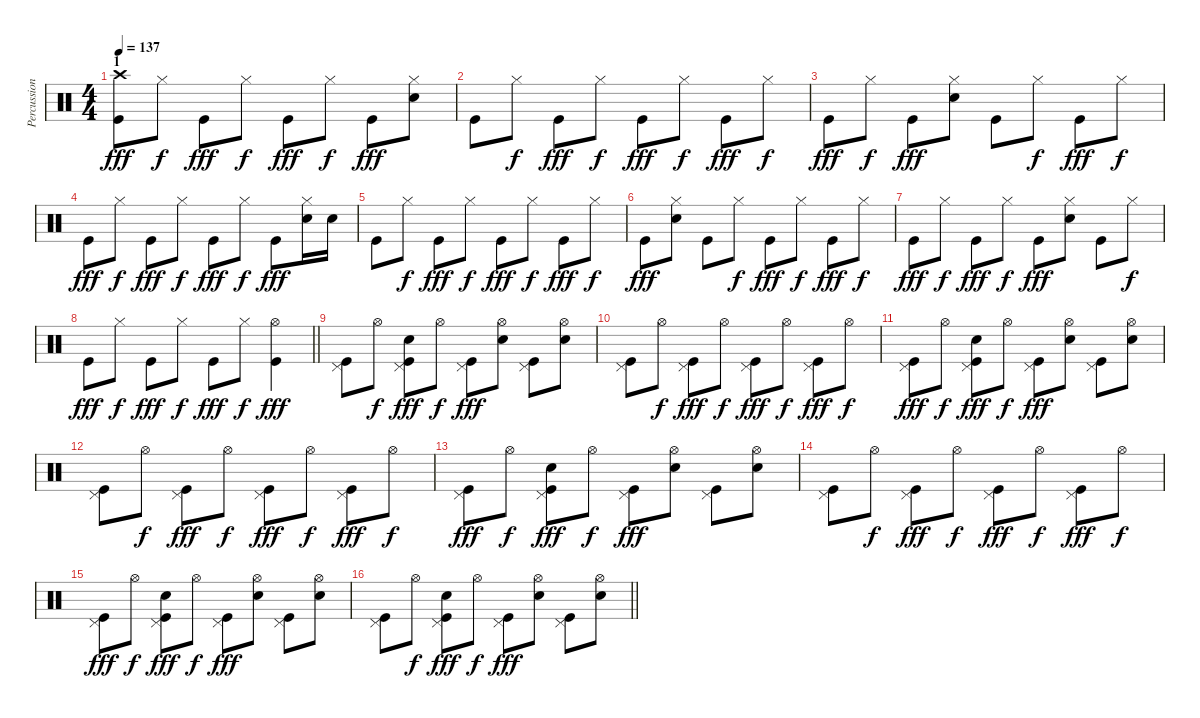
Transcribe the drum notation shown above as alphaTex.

\track ("Percussions" "Percussion") {instrument percussion}
\staff {score}
\articulation defaults
\ts (4 4)
\section ("" "1")
\tempo 137
\clef neutral
\ks c
("Kick (hit)" "Crash high (hit)").8{dy fff} "Hi-Hat (closed)".8{dy f} "Kick (hit)".8{dy fff} "Hi-Hat (closed)".8{dy f} "Kick (hit)".8{dy fff} "Hi-Hat (closed)".8{dy f} "Kick (hit)".8{dy fff} ("Electric Snare (hit)" "Hi-Hat (closed)").8 |
"Kick (hit)".8 "Hi-Hat (closed)".8{dy f} "Kick (hit)".8{dy fff} "Hi-Hat (closed)".8{dy f} "Kick (hit)".8{dy fff} "Hi-Hat (closed)".8{dy f} "Kick (hit)".8{dy fff} "Hi-Hat (closed)".8{dy f} |
"Kick (hit)".8{dy fff} "Hi-Hat (closed)".8{dy f} "Kick (hit)".8{dy fff} ("Electric Snare (hit)" "Hi-Hat (closed)").8 "Kick (hit)".8 "Hi-Hat (closed)".8{dy f} "Kick (hit)".8{dy fff} "Hi-Hat (closed)".8{dy f} |
"Kick (hit)".8{dy fff} "Hi-Hat (closed)".8{dy f} "Kick (hit)".8{dy fff} "Hi-Hat (closed)".8{dy f} "Kick (hit)".8{dy fff} "Hi-Hat (closed)".8{dy f} "Kick (hit)".8{dy fff} ("Electric Snare (hit)" "Hi-Hat (closed)").16 "Electric Snare (hit)".16 |
"Kick (hit)".8 "Hi-Hat (closed)".8{dy f} "Kick (hit)".8{dy fff} "Hi-Hat (closed)".8{dy f} "Kick (hit)".8{dy fff} "Hi-Hat (closed)".8{dy f} "Kick (hit)".8{dy fff} "Hi-Hat (closed)".8{dy f} |
"Kick (hit)".8{dy fff} ("Electric Snare (hit)" "Hi-Hat (closed)").8 "Kick (hit)".8 "Hi-Hat (closed)".8{dy f} "Kick (hit)".8{dy fff} "Hi-Hat (closed)".8{dy f} "Kick (hit)".8{dy fff} "Hi-Hat (closed)".8{dy f} |
"Kick (hit)".8{dy fff} "Hi-Hat (closed)".8{dy f} "Kick (hit)".8{dy fff} "Hi-Hat (closed)".8{dy f} "Kick (hit)".8{dy fff} ("Electric Snare (hit)" "Hi-Hat (closed)").8 "Kick (hit)".8 "Hi-Hat (closed)".8{dy f} |
\barLineRight lightlight "Kick (hit)".8{dy fff} "Hi-Hat (closed)".8{dy f} "Kick (hit)".8{dy fff} "Hi-Hat (closed)".8{dy f} "Kick (hit)".8{dy fff} "Hi-Hat (closed)".8{dy f}
("Kick (hit)" "Hi-Hat (open)").4{dy fff} |
("Kick (hit)" "Pedal Hi-Hat (hit)").8 "Hi-Hat (open)".8{dy f} ("Kick (hit)" "Electric Snare (hit)" "Pedal Hi-Hat (hit)").8{dy fff} "Hi-Hat (open)".8{dy f} ("Kick (hit)" "Pedal Hi-Hat (hit)").8{dy fff} ("Electric Snare (hit)" "Hi-Hat (open)").8 ("Kick (hit)" "Pedal Hi-Hat (hit)").8 ("Electric Snare (hit)" "Hi-Hat (open)").8 |
("Kick (hit)" "Pedal Hi-Hat (hit)").8 "Hi-Hat (open)".8{dy f} ("Kick (hit)" "Pedal Hi-Hat (hit)").8{dy fff} "Hi-Hat (open)".8{dy f} ("Kick (hit)" "Pedal Hi-Hat (hit)").8{dy fff} "Hi-Hat (open)".8{dy f} ("Kick (hit)" "Pedal Hi-Hat (hit)").8{dy fff} "Hi-Hat (open)".8{dy f} |
("Kick (hit)" "Pedal Hi-Hat (hit)").8{dy fff} "Hi-Hat (open)".8{dy f} ("Kick (hit)" "Electric Snare (hit)" "Pedal Hi-Hat (hit)").8{dy fff} "Hi-Hat (open)".8{dy f} ("Kick (hit)" "Pedal Hi-Hat (hit)").8{dy fff} ("Electric Snare (hit)" "Hi-Hat (open)").8 ("Kick (hit)" "Pedal Hi-Hat (hit)").8 ("Electric Snare (hit)" "Hi-Hat (open)").8 |
("Kick (hit)" "Pedal Hi-Hat (hit)").8 "Hi-Hat (open)".8{dy f} ("Kick (hit)" "Pedal Hi-Hat (hit)").8{dy fff} "Hi-Hat (open)".8{dy f} ("Kick (hit)" "Pedal Hi-Hat (hit)").8{dy fff} "Hi-Hat (open)".8{dy f} ("Kick (hit)" "Pedal Hi-Hat (hit)").8{dy fff} "Hi-Hat (open)".8{dy f} |
("Kick (hit)" "Pedal Hi-Hat (hit)").8{dy fff} "Hi-Hat (open)".8{dy f} ("Kick (hit)" "Electric Snare (hit)" "Pedal Hi-Hat (hit)").8{dy fff} "Hi-Hat (open)".8{dy f} ("Kick (hit)" "Pedal Hi-Hat (hit)").8{dy fff} ("Electric Snare (hit)" "Hi-Hat (open)").8 ("Kick (hit)" "Pedal Hi-Hat (hit)").8 ("Electric Snare (hit)" "Hi-Hat (open)").8 |
("Kick (hit)" "Pedal Hi-Hat (hit)").8 "Hi-Hat (open)".8{dy f} ("Kick (hit)" "Pedal Hi-Hat (hit)").8{dy fff} "Hi-Hat (open)".8{dy f} ("Kick (hit)" "Pedal Hi-Hat (hit)").8{dy fff} "Hi-Hat (open)".8{dy f} ("Kick (hit)" "Pedal Hi-Hat (hit)").8{dy fff} "Hi-Hat (open)".8{dy f} |
("Kick (hit)" "Pedal Hi-Hat (hit)").8{dy fff} "Hi-Hat (open)".8{dy f} ("Kick (hit)" "Electric Snare (hit)" "Pedal Hi-Hat (hit)").8{dy fff} "Hi-Hat (open)".8{dy f} ("Kick (hit)" "Pedal Hi-Hat (hit)").8{dy fff} ("Electric Snare (hit)" "Hi-Hat (open)").8 ("Kick (hit)" "Pedal Hi-Hat (hit)").8 ("Electric Snare (hit)" "Hi-Hat (open)").8 |
\barLineRight lightlight
("Kick (hit)" "Pedal Hi-Hat (hit)").8 "Hi-Hat (open)".8{dy f} ("Kick (hit)" "Electric Snare (hit)" "Pedal Hi-Hat (hit)").8{dy fff} "Hi-Hat (open)".8{dy f} ("Kick (hit)" "Pedal Hi-Hat (hit)").8{dy fff} ("Electric Snare (hit)" "Hi-Hat (open)").8 ("Kick (hit)" "Pedal Hi-Hat (hit)").8 ("Electric Snare (hit)" "Hi-Hat (open)").8
